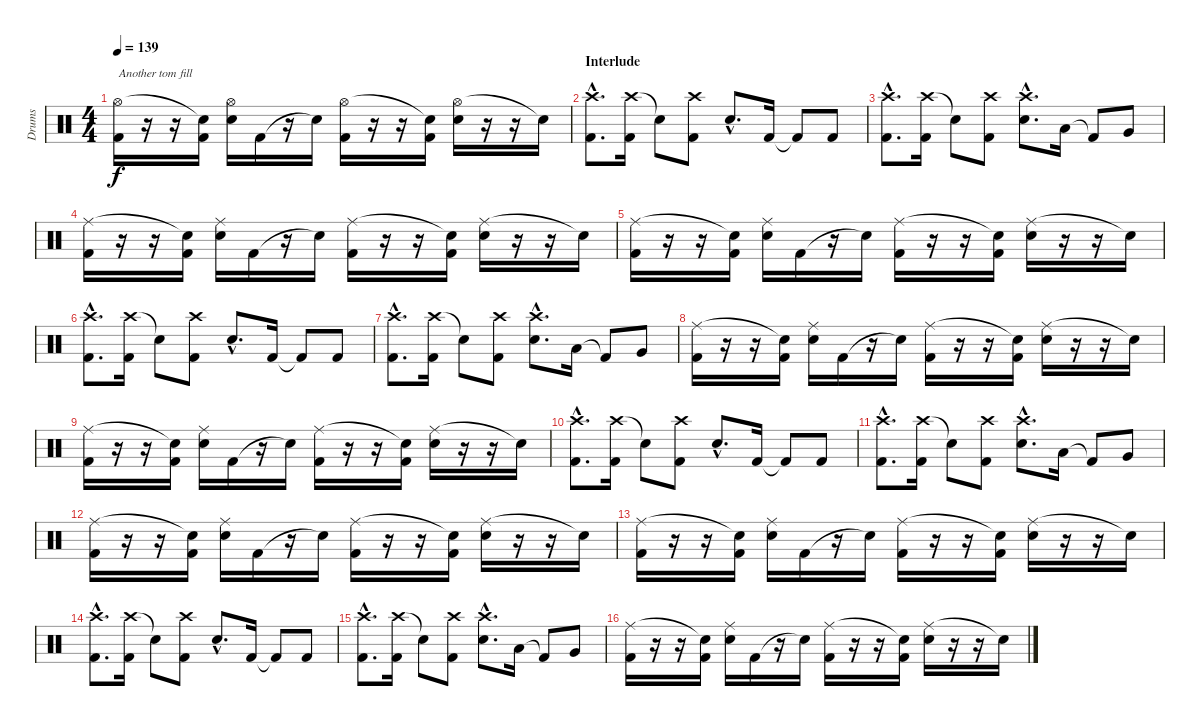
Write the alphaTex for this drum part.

\track ("Drums" "Drums") {instrument percussion}
\staff {score}
\articulation defaults
\ts (4 4)
\tempo 139
\clef neutral
\ks c
("Hi-Hat (open)" "Kick (hit) 2").16{txt "Another tom fill" dy f} r.16 r.16 ("Snare (hit)"{t} "Kick (hit) 2").16 ("Hi-Hat (open)" "Snare (hit) 2").16 "Kick (hit) 2".16 r.16 "Snare (hit)"{t}.16 ("Hi-Hat (open)" "Kick (hit) 2").16 r.16 r.16 ("Snare (hit)"{t} "Kick (hit) 2").16 ("Hi-Hat (open)" "Snare (hit) 2").16 r.16 r.16 "Snare (hit)"{t}.16 |
\section ("" "Interlude")
("Crash high (hit)"{hac} "Kick (hit) 2"{hac}).8{d} ("Crash high (hit)" "Kick (hit) 2").16 "Snare (hit)"{t}.8 ("Crash high (hit)" "Kick (hit) 2").8 "Snare (hit) 2"{hac}.8{d} "Kick (hit) 2".16 "Kick (hit) 2"{t}.8 "Kick (hit) 2".8 |
("Crash high (hit)"{hac} "Kick (hit) 2"{hac}).8{d} ("Crash high (hit)" "Kick (hit) 2").16 "Snare (hit)"{t}.8 ("Crash high (hit)" "Kick (hit) 2").8 ("Crash high (hit)"{hac} "Snare (hit) 2"{hac}).8{d} "Low Tom (hit)".16 "Kick (hit) 2"{t}.8 "Very Low Tom (hit)".8 |
("Ride (middle)" "Kick (hit) 2").16 r.16 r.16 ("Snare (hit)"{t} "Kick (hit) 2").16 ("Ride (middle)" "Snare (hit) 2").16 "Kick (hit) 2".16 r.16 "Snare (hit)"{t}.16 ("Ride (middle)" "Kick (hit) 2").16 r.16 r.16 ("Snare (hit)"{t} "Kick (hit) 2").16 ("Ride (middle)" "Snare (hit) 2").16 r.16 r.16 "Snare (hit)"{t}.16 |
("Ride (middle)" "Kick (hit) 2").16 r.16 r.16 ("Snare (hit)"{t} "Kick (hit) 2").16 ("Ride (middle)" "Snare (hit) 2").16 "Kick (hit) 2".16 r.16 "Snare (hit)"{t}.16 ("Ride (middle)" "Kick (hit) 2").16 r.16 r.16 ("Snare (hit)"{t} "Kick (hit) 2").16 ("Ride (middle)" "Snare (hit) 2").16 r.16 r.16 "Snare (hit)"{t}.16 |
("Crash high (hit)"{hac} "Kick (hit) 2"{hac}).8{d} ("Crash high (hit)" "Kick (hit) 2").16 "Snare (hit)"{t}.8 ("Crash high (hit)" "Kick (hit) 2").8 "Snare (hit) 2"{hac}.8{d} "Kick (hit) 2".16 "Kick (hit) 2"{t}.8 "Kick (hit) 2".8 |
("Crash high (hit)"{hac} "Kick (hit) 2"{hac}).8{d} ("Crash high (hit)" "Kick (hit) 2").16 "Snare (hit)"{t}.8 ("Crash high (hit)" "Kick (hit) 2").8 ("Crash high (hit)"{hac} "Snare (hit) 2"{hac}).8{d} "Low Tom (hit)".16 "Kick (hit) 2"{t}.8 "Very Low Tom (hit)".8 |
("Ride (middle)" "Kick (hit) 2").16 r.16 r.16 ("Snare (hit)"{t} "Kick (hit) 2").16 ("Ride (middle)" "Snare (hit) 2").16 "Kick (hit) 2".16 r.16 "Snare (hit)"{t}.16 ("Ride (middle)" "Kick (hit) 2").16 r.16 r.16 ("Snare (hit)"{t} "Kick (hit) 2").16 ("Ride (middle)" "Snare (hit) 2").16 r.16 r.16 "Snare (hit)"{t}.16 |
("Ride (middle)" "Kick (hit) 2").16 r.16 r.16 ("Snare (hit)"{t} "Kick (hit) 2").16 ("Ride (middle)" "Snare (hit) 2").16 "Kick (hit) 2".16 r.16 "Snare (hit)"{t}.16 ("Ride (middle)" "Kick (hit) 2").16 r.16 r.16 ("Snare (hit)"{t} "Kick (hit) 2").16 ("Ride (middle)" "Snare (hit) 2").16 r.16 r.16 "Snare (hit)"{t}.16 |
("Crash high (hit)"{hac} "Kick (hit) 2"{hac}).8{d} ("Crash high (hit)" "Kick (hit) 2").16 "Snare (hit)"{t}.8 ("Crash high (hit)" "Kick (hit) 2").8 "Snare (hit) 2"{hac}.8{d} "Kick (hit) 2".16 "Kick (hit) 2"{t}.8 "Kick (hit) 2".8 |
("Crash high (hit)"{hac} "Kick (hit) 2"{hac}).8{d} ("Crash high (hit)" "Kick (hit) 2").16 "Snare (hit)"{t}.8 ("Crash high (hit)" "Kick (hit) 2").8 ("Crash high (hit)"{hac} "Snare (hit) 2"{hac}).8{d} "Low Tom (hit)".16 "Kick (hit) 2"{t}.8 "Very Low Tom (hit)".8 |
("Ride (middle)" "Kick (hit) 2").16 r.16 r.16 ("Snare (hit)"{t} "Kick (hit) 2").16 ("Ride (middle)" "Snare (hit) 2").16 "Kick (hit) 2".16 r.16 "Snare (hit)"{t}.16 ("Ride (middle)" "Kick (hit) 2").16 r.16 r.16 ("Snare (hit)"{t} "Kick (hit) 2").16 ("Ride (middle)" "Snare (hit) 2").16 r.16 r.16 "Snare (hit)"{t}.16 |
("Ride (middle)" "Kick (hit) 2").16 r.16 r.16 ("Snare (hit)"{t} "Kick (hit) 2").16 ("Ride (middle)" "Snare (hit) 2").16 "Kick (hit) 2".16 r.16 "Snare (hit)"{t}.16 ("Ride (middle)" "Kick (hit) 2").16 r.16 r.16 ("Snare (hit)"{t} "Kick (hit) 2").16 ("Ride (middle)" "Snare (hit) 2").16 r.16 r.16 "Snare (hit)"{t}.16 |
("Crash high (hit)"{hac} "Kick (hit) 2"{hac}).8{d} ("Crash high (hit)" "Kick (hit) 2").16 "Snare (hit)"{t}.8 ("Crash high (hit)" "Kick (hit) 2").8 "Snare (hit) 2"{hac}.8{d} "Kick (hit) 2".16 "Kick (hit) 2"{t}.8 "Kick (hit) 2".8 |
("Crash high (hit)"{hac} "Kick (hit) 2"{hac}).8{d} ("Crash high (hit)" "Kick (hit) 2").16 "Snare (hit)"{t}.8 ("Crash high (hit)" "Kick (hit) 2").8 ("Crash high (hit)"{hac} "Snare (hit) 2"{hac}).8{d} "Low Tom (hit)".16 "Kick (hit) 2"{t}.8 "Very Low Tom (hit)".8 |
("Ride (middle)" "Kick (hit) 2").16 r.16 r.16 ("Snare (hit)"{t} "Kick (hit) 2").16 ("Ride (middle)" "Snare (hit) 2").16 "Kick (hit) 2".16 r.16 "Snare (hit)"{t}.16 ("Ride (middle)" "Kick (hit) 2").16 r.16 r.16 ("Snare (hit)"{t} "Kick (hit) 2").16 ("Ride (middle)" "Snare (hit) 2").16 r.16 r.16 "Snare (hit)"{t}.16
